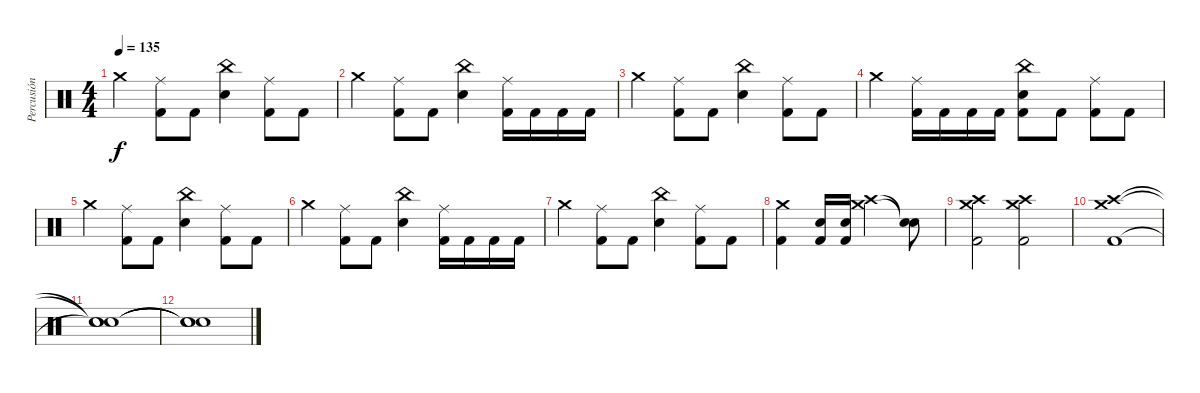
\track ("Percusión" "Percusión") {instrument percussion}
\staff {score}
\articulation defaults
\ts (4 4)
\tempo 135
\clef neutral
\ks c "Crash medium (hit)".4{dy f}
("Ride (middle)" "Kick (hit) 2").8 "Kick (hit) 2".8 ("Snare (hit) 2" "China (hit)").4 ("Ride (middle)" "Kick (hit) 2").8 "Kick (hit) 2".8 |
"Crash medium (hit)".4 ("Ride (middle)" "Kick (hit) 2").8 "Kick (hit) 2".8 ("Snare (hit) 2" "China (hit)").4 ("Ride (middle)" "Kick (hit) 2").16 "Kick (hit) 2".16 "Kick (hit) 2".16 "Kick (hit) 2".16 |
"Crash medium (hit)".4 ("Ride (middle)" "Kick (hit) 2").8 "Kick (hit) 2".8 ("Snare (hit) 2" "China (hit)").4 ("Ride (middle)" "Kick (hit) 2").8 "Kick (hit) 2".8 |
"Crash medium (hit)".4 ("Ride (middle)" "Kick (hit) 2").16 "Kick (hit) 2".16 "Kick (hit) 2".16 "Kick (hit) 2".16 ("Snare (hit) 2" "China (hit)" "Kick (hit) 2").8 "Kick (hit) 2".8 ("Ride (middle)" "Kick (hit) 2").8 "Kick (hit) 2".8 |
"Crash medium (hit)".4 ("Ride (middle)" "Kick (hit) 2").8 "Kick (hit) 2".8 ("Snare (hit) 2" "China (hit)").4 ("Ride (middle)" "Kick (hit) 2").8 "Kick (hit) 2".8 |
"Crash medium (hit)".4 ("Ride (middle)" "Kick (hit) 2").8 "Kick (hit) 2".8 ("Snare (hit) 2" "China (hit)").4 ("Ride (middle)" "Kick (hit) 2").16 "Kick (hit) 2".16 "Kick (hit) 2".16 "Kick (hit) 2".16 |
"Crash medium (hit)".4 ("Ride (middle)" "Kick (hit) 2").8 "Kick (hit) 2".8 ("Snare (hit) 2" "China (hit)").4 ("Ride (middle)" "Kick (hit) 2").8 "Kick (hit) 2".8 |
("Crash medium (hit)" "Kick (hit) 2").4 ("Snare (hit) 2" "Kick (hit) 2").16 ("Snare (hit) 2" "Kick (hit) 2").16 ("Crash high (hit)" "Crash medium (hit)").2 ("Snare (hit)"{t} "Snare (hit)"{t}).8 |
("Crash high (hit)" "Crash medium (hit)" "Kick (hit) 2").2 ("Crash high (hit)" "Crash medium (hit)" "Kick (hit) 2").2 |
("Crash high (hit)" "Crash medium (hit)" "Kick (hit) 2").1 |
("Snare (hit)"{t} "Snare (hit)"{t} "Snare (hit)"{t}).1 |
("Snare (hit)"{t} "Snare (hit)"{t} "Snare (hit)"{t}).1
